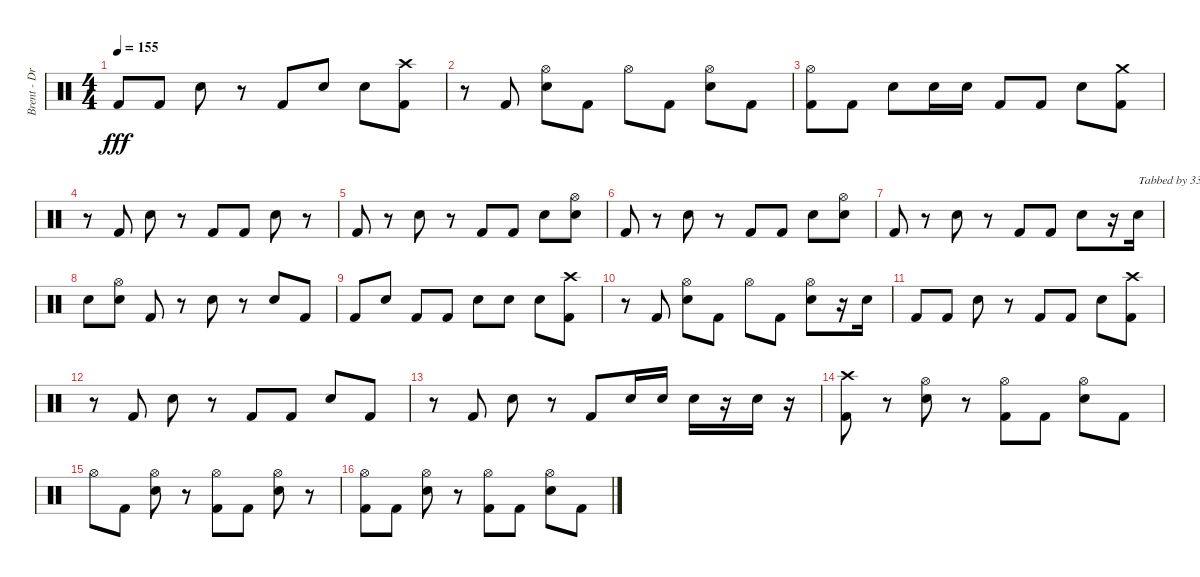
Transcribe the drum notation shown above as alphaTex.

\track ("Brent - Drums" "Brent - Dr") {instrument percussion}
\staff {score}
\articulation defaults
\ts (4 4)
\tempo 155
\clef neutral
\ks c "Kick (hit) 2".8{dy fff} "Kick (hit) 2".8 "Snare (hit) 2".8
r.8 "Kick (hit) 2".8 "Snare (hit) 2".8 "Snare (hit) 2".8 ("Crash high (hit)" "Kick (hit) 2").8 |
r.8 "Kick (hit) 2".8 ("Hi-Hat (open)" "Snare (hit) 2").8 "Kick (hit) 2".8 "Hi-Hat (open)".8 "Kick (hit) 2".8 ("Hi-Hat (open)" "Snare (hit) 2").8 "Kick (hit) 2".8 |
("Hi-Hat (open)" "Kick (hit) 2").8 "Kick (hit) 2".8 "Snare (hit) 2".8 "Snare (hit) 2".16 "Snare (hit) 2".16 "Kick (hit) 2".8 "Kick (hit) 2".8 "Snare (hit) 2".8 ("Crash medium (hit)" "Kick (hit) 2").8 |
r.8 "Kick (hit) 2".8 "Snare (hit) 2".8 r.8 "Kick (hit) 2".8 "Kick (hit) 2".8 "Snare (hit) 2".8 r.8 |
"Kick (hit) 2".8 r.8 "Snare (hit) 2".8 r.8 "Kick (hit) 2".8 "Kick (hit) 2".8 "Snare (hit) 2".8 ("Hi-Hat (open)" "Snare (hit) 2").8 |
"Kick (hit) 2".8 r.8 "Snare (hit) 2".8 r.8 "Kick (hit) 2".8 "Kick (hit) 2".8 "Snare (hit) 2".8 ("Hi-Hat (open)" "Snare (hit) 2").8 |
"Kick (hit) 2".8 r.8 "Snare (hit) 2".8 r.8 "Kick (hit) 2".8 "Kick (hit) 2".8 "Snare (hit) 2".8 r.16 "Snare (hit) 2".16{txt "Tabbed by 33SLASH33"} |
"Snare (hit) 2".8 ("Hi-Hat (open)" "Snare (hit) 2").8 "Kick (hit) 2".8 r.8 "Snare (hit) 2".8 r.8 "Snare (hit) 2".8 "Kick (hit) 2".8 |
"Kick (hit) 2".8 "Snare (hit) 2".8 "Kick (hit) 2".8 "Kick (hit) 2".8 "Snare (hit) 2".8 "Snare (hit) 2".8 "Snare (hit) 2".8 ("Crash high (hit)" "Kick (hit) 2").8 |
r.8 "Kick (hit) 2".8 ("Hi-Hat (open)" "Snare (hit) 2").8 "Kick (hit) 2".8 "Hi-Hat (open)".8 "Kick (hit) 2".8 ("Hi-Hat (open)" "Snare (hit) 2").8 r.16 "Snare (hit) 2".16 |
"Kick (hit) 2".8 "Kick (hit) 2".8 "Snare (hit) 2".8 r.8 "Kick (hit) 2".8 "Kick (hit) 2".8 "Snare (hit) 2".8 ("Crash high (hit)" "Kick (hit) 2").8 |
r.8 "Kick (hit) 2".8 "Snare (hit) 2".8 r.8 "Kick (hit) 2".8 "Kick (hit) 2".8 "Snare (hit) 2".8 "Kick (hit) 2".8 |
r.8 "Kick (hit) 2".8 "Snare (hit) 2".8 r.8 "Kick (hit) 2".8 "Snare (hit) 2".16 "Snare (hit) 2".16 "Snare (hit) 2".16 r.16 "Snare (hit) 2".16 r.16 |
("Crash high (hit)" "Kick (hit) 2").8 r.8 ("Hi-Hat (open)" "Snare (hit) 2").8 r.8 ("Hi-Hat (open)" "Kick (hit) 2").8 "Kick (hit) 2".8 ("Hi-Hat (open)" "Snare (hit) 2").8 "Kick (hit) 2".8 |
"Hi-Hat (open)".8 "Kick (hit) 2".8 ("Hi-Hat (open)" "Snare (hit) 2").8 r.8 ("Hi-Hat (open)" "Kick (hit) 2").8 "Kick (hit) 2".8 ("Hi-Hat (open)" "Snare (hit) 2").8 r.8 |
("Hi-Hat (open)" "Kick (hit) 2").8 "Kick (hit) 2".8 ("Hi-Hat (open)" "Snare (hit) 2").8 r.8 ("Hi-Hat (open)" "Kick (hit) 2").8 "Kick (hit) 2".8 ("Hi-Hat (open)" "Snare (hit) 2").8 "Kick (hit) 2".8
